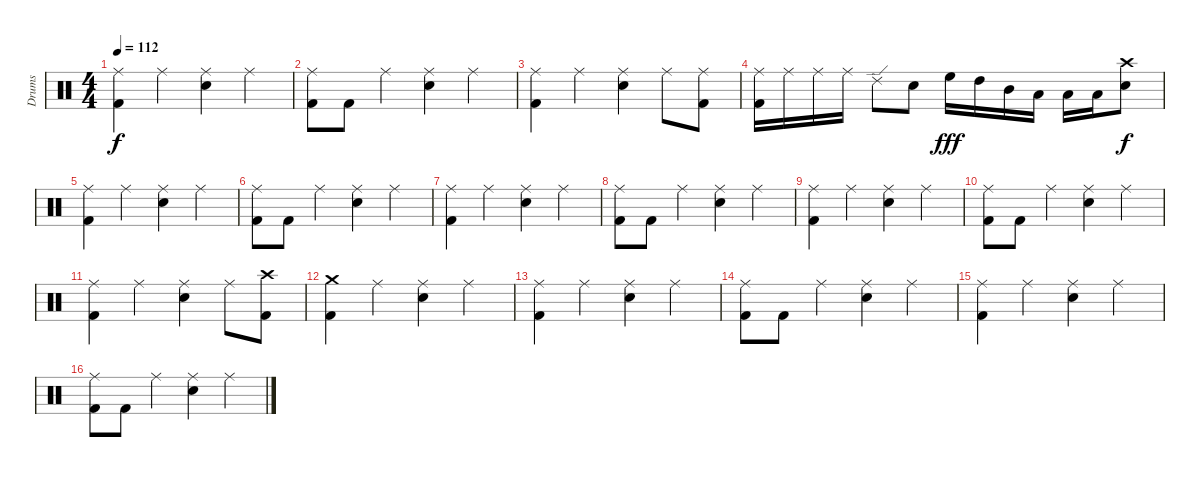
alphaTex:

\track ("Drums" "Drums") {instrument percussion}
\staff {score}
\articulation defaults
\ts (4 4)
\tempo 112
\clef neutral
\ks c
("Ride (middle)" "Kick (hit) 2").4{dy f} "Ride (middle)".4 ("Ride (middle)" "Snare (hit) 2").4 "Ride (middle)".4 |
("Ride (middle)" "Kick (hit) 2").8 "Kick (hit) 2".8 "Ride (middle)".4 ("Ride (middle)" "Snare (hit) 2").4 "Ride (middle)".4 |
("Ride (middle)" "Kick (hit) 2").4 "Ride (middle)".4 ("Ride (middle)" "Snare (hit) 2").4 "Ride (middle)".8 ("Ride (middle)" "Kick (hit) 2").8 |
("Ride (middle)" "Kick (hit) 2").16 "Ride (middle)".16 "Ride (middle)".16 "Ride (middle)".16 "Ride (edge) 2".8 "Snare (hit) 2".8 "High Floor Tom (hit)".16{dy fff} "High Tom (hit)".16 "Mid Tom (hit)".16 "Low Tom (hit)".16 "Low Tom (hit)".16 "Low Tom (hit)".16 ("Crash high (hit)" "Snare (hit) 2").8{dy f} |
("Ride (middle)" "Kick (hit) 2").4 "Ride (middle)".4 ("Ride (middle)" "Snare (hit) 2").4 "Ride (middle)".4 |
("Ride (middle)" "Kick (hit) 2").8 "Kick (hit) 2".8 "Ride (middle)".4 ("Ride (middle)" "Snare (hit) 2").4 "Ride (middle)".4 |
("Ride (middle)" "Kick (hit) 2").4 "Ride (middle)".4 ("Ride (middle)" "Snare (hit) 2").4 "Ride (middle)".4 |
("Ride (middle)" "Kick (hit) 2").8 "Kick (hit) 2".8 "Ride (middle)".4 ("Ride (middle)" "Snare (hit) 2").4 "Ride (middle)".4 |
("Ride (middle)" "Kick (hit) 2").4 "Ride (middle)".4 ("Ride (middle)" "Snare (hit) 2").4 "Ride (middle)".4 |
("Ride (middle)" "Kick (hit) 2").8 "Kick (hit) 2".8 "Ride (middle)".4 ("Ride (middle)" "Snare (hit) 2").4 "Ride (middle)".4 |
("Ride (middle)" "Kick (hit) 2").4 "Ride (middle)".4 ("Ride (middle)" "Snare (hit) 2").4 "Ride (middle)".8 ("Crash high (hit)" "Kick (hit) 2").8 |
("Crash medium (hit)" "Kick (hit) 2").4 "Ride (middle)".4 ("Ride (middle)" "Snare (hit) 2").4 "Ride (middle)".4 |
("Ride (middle)" "Kick (hit) 2").4 "Ride (middle)".4 ("Ride (middle)" "Snare (hit) 2").4 "Ride (middle)".4 |
("Ride (middle)" "Kick (hit) 2").8 "Kick (hit) 2".8 "Ride (middle)".4 ("Ride (middle)" "Snare (hit) 2").4 "Ride (middle)".4 |
("Ride (middle)" "Kick (hit) 2").4 "Ride (middle)".4 ("Ride (middle)" "Snare (hit) 2").4 "Ride (middle)".4 |
("Ride (middle)" "Kick (hit) 2").8 "Kick (hit) 2".8 "Ride (middle)".4 ("Ride (middle)" "Snare (hit) 2").4 "Ride (middle)".4
